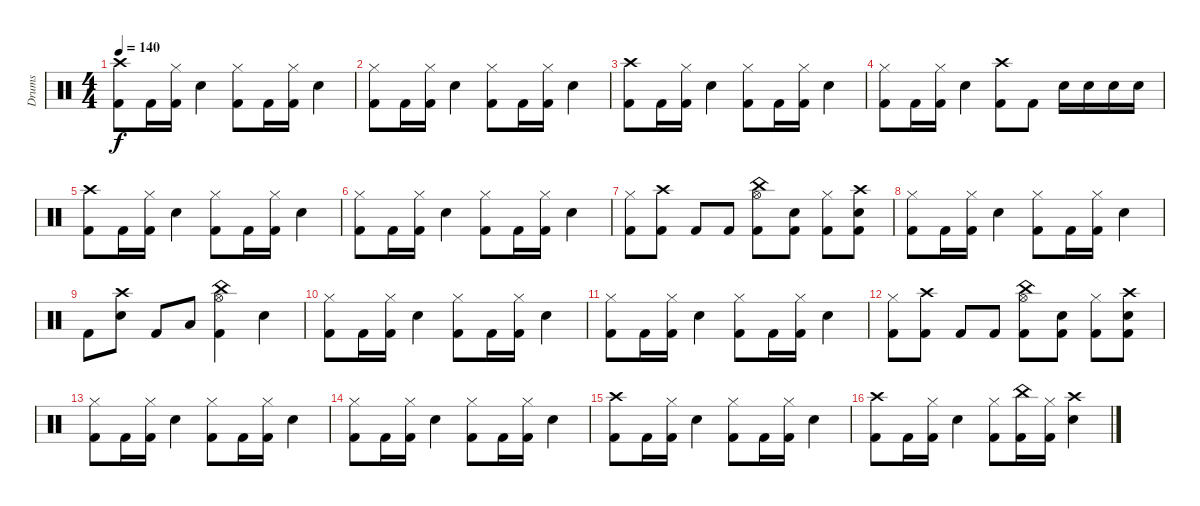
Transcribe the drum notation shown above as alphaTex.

\track ("Drums" "Drums") {instrument percussion}
\staff {score}
\articulation defaults
\ts (4 4)
\tempo 140
\clef neutral
\ks c
("Crash high (hit)" "Kick (hit) 2").8{dy f} "Kick (hit) 2".16 ("Hi-Hat (closed)" "Kick (hit) 2").16 "Electric Snare (hit)".4 ("Hi-Hat (closed)" "Kick (hit) 2").8 "Kick (hit) 2".16 ("Hi-Hat (closed)" "Kick (hit) 2").16 "Electric Snare (hit)".4 |
("Hi-Hat (closed)" "Kick (hit) 2").8 "Kick (hit) 2".16 ("Hi-Hat (closed)" "Kick (hit) 2").16 "Electric Snare (hit)".4 ("Hi-Hat (closed)" "Kick (hit) 2").8 "Kick (hit) 2".16 ("Hi-Hat (closed)" "Kick (hit) 2").16 "Electric Snare (hit)".4 |
("Crash high (hit)" "Kick (hit) 2").8 "Kick (hit) 2".16 ("Hi-Hat (closed)" "Kick (hit) 2").16 "Electric Snare (hit)".4 ("Hi-Hat (closed)" "Kick (hit) 2").8 "Kick (hit) 2".16 ("Hi-Hat (closed)" "Kick (hit) 2").16 "Electric Snare (hit)".4 |
("Hi-Hat (closed)" "Kick (hit) 2").8 "Kick (hit) 2".16 ("Hi-Hat (closed)" "Kick (hit) 2").16 "Electric Snare (hit)".4 ("Crash high (hit)" "Kick (hit) 2").8 "Kick (hit) 2".8 "Electric Snare (hit)".16 "Electric Snare (hit)".16 "Electric Snare (hit)".16 "Electric Snare (hit)".16 |
("Crash high (hit)" "Kick (hit) 2").8 "Kick (hit) 2".16 ("Hi-Hat (closed)" "Kick (hit) 2").16 "Electric Snare (hit)".4 ("Hi-Hat (closed)" "Kick (hit) 2").8 "Kick (hit) 2".16 ("Hi-Hat (closed)" "Kick (hit) 2").16 "Electric Snare (hit)".4 |
("Hi-Hat (closed)" "Kick (hit) 2").8 "Kick (hit) 2".16 ("Hi-Hat (closed)" "Kick (hit) 2").16 "Electric Snare (hit)".4 ("Hi-Hat (closed)" "Kick (hit) 2").8 "Kick (hit) 2".16 ("Hi-Hat (closed)" "Kick (hit) 2").16 "Electric Snare (hit)".4 |
("Hi-Hat (closed)" "Kick (hit) 2").8 ("Crash high (hit)" "Kick (hit) 2").8 "Kick (hit) 2".8 "Kick (hit) 2".8 ("China (hit)" "Hi-Hat (open)" "Kick (hit) 2").8 ("Electric Snare (hit)" "Kick (hit) 2").8 ("Hi-Hat (closed)" "Kick (hit) 2").8 ("Crash high (hit)" "Electric Snare (hit)" "Kick (hit) 2").8 |
("Hi-Hat (closed)" "Kick (hit) 2").8 "Kick (hit) 2".16 ("Hi-Hat (closed)" "Kick (hit) 2").16 "Electric Snare (hit)".4 ("Hi-Hat (closed)" "Kick (hit) 2").8 "Kick (hit) 2".16 ("Hi-Hat (closed)" "Kick (hit) 2").16 "Electric Snare (hit)".4 |
"Kick (hit) 2".8 ("Crash high (hit)" "Electric Snare (hit)").8 "Kick (hit) 2".8 "Low Floor Tom (hit)".8 ("China (hit)" "Hi-Hat (open)" "Kick (hit) 2").4 "Electric Snare (hit)".4 |
("Hi-Hat (closed)" "Kick (hit) 2").8 "Kick (hit) 2".16 ("Hi-Hat (closed)" "Kick (hit) 2").16 "Electric Snare (hit)".4 ("Hi-Hat (closed)" "Kick (hit) 2").8 "Kick (hit) 2".16 ("Hi-Hat (closed)" "Kick (hit) 2").16 "Electric Snare (hit)".4 |
("Hi-Hat (closed)" "Kick (hit) 2").8 "Kick (hit) 2".16 ("Hi-Hat (closed)" "Kick (hit) 2").16 "Electric Snare (hit)".4 ("Hi-Hat (closed)" "Kick (hit) 2").8 "Kick (hit) 2".16 ("Hi-Hat (closed)" "Kick (hit) 2").16 "Electric Snare (hit)".4 |
("Hi-Hat (closed)" "Kick (hit) 2").8 ("Crash high (hit)" "Kick (hit) 2").8 "Kick (hit) 2".8 "Kick (hit) 2".8 ("China (hit)" "Hi-Hat (open)" "Kick (hit) 2").8 ("Electric Snare (hit)" "Kick (hit) 2").8 ("Hi-Hat (closed)" "Kick (hit) 2").8 ("Crash high (hit)" "Electric Snare (hit)" "Kick (hit) 2").8 |
("Hi-Hat (closed)" "Kick (hit) 2").8 "Kick (hit) 2".16 ("Hi-Hat (closed)" "Kick (hit) 2").16 "Electric Snare (hit)".4 ("Hi-Hat (closed)" "Kick (hit) 2").8 "Kick (hit) 2".16 ("Hi-Hat (closed)" "Kick (hit) 2").16 "Electric Snare (hit)".4 |
("Hi-Hat (closed)" "Kick (hit) 2").8 "Kick (hit) 2".16 ("Hi-Hat (closed)" "Kick (hit) 2").16 "Electric Snare (hit)".4 ("Hi-Hat (closed)" "Kick (hit) 2").8 "Kick (hit) 2".16 ("Hi-Hat (closed)" "Kick (hit) 2").16 "Electric Snare (hit)".4 |
("Crash high (hit)" "Kick (hit) 2").8 "Kick (hit) 2".16 ("Hi-Hat (closed)" "Kick (hit) 2").16 "Electric Snare (hit)".4 ("Hi-Hat (closed)" "Kick (hit) 2").8 "Kick (hit) 2".16 ("Hi-Hat (closed)" "Kick (hit) 2").16 "Electric Snare (hit)".4 |
("Crash high (hit)" "Kick (hit) 2").8 "Kick (hit) 2".16 ("Hi-Hat (closed)" "Kick (hit) 2").16 "Electric Snare (hit)".4 ("Hi-Hat (closed)" "Kick (hit) 2").8 ("China (hit)" "Kick (hit) 2").16 ("Hi-Hat (closed)" "Kick (hit) 2").16 ("Crash high (hit)" "Electric Snare (hit)").4
